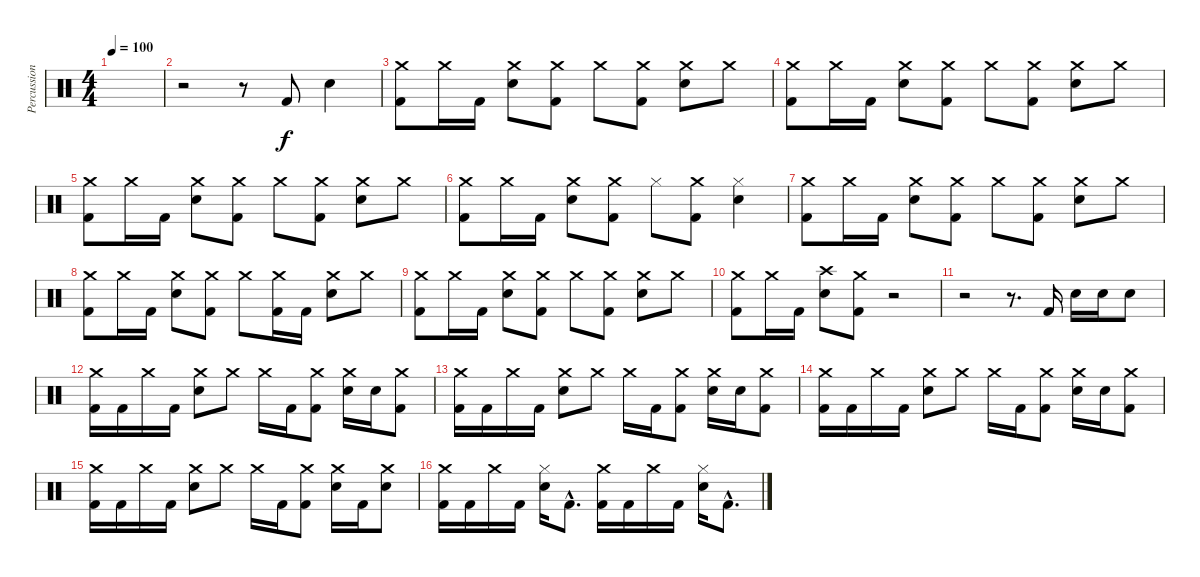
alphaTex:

\track ("Percussions" "Percussion") {instrument percussion}
\staff {score}
\articulation defaults
\ts (4 4)
\tempo 100
\clef neutral
\ks c
|
r.2 r.8 "Kick (hit) 2".8 "Electric Snare (hit)".4 |
("Crash medium (hit)" "Kick (hit) 2").8 "Crash medium (hit)".16 "Kick (hit) 2".16 ("Electric Snare (hit)" "Crash medium (hit)").8 ("Crash medium (hit)" "Kick (hit) 2").8 "Crash medium (hit)".8 ("Crash medium (hit)" "Kick (hit) 2").8 ("Electric Snare (hit)" "Crash medium (hit)").8 "Crash medium (hit)".8 |
("Crash medium (hit)" "Kick (hit) 2").8 "Crash medium (hit)".16 "Kick (hit) 2".16 ("Electric Snare (hit)" "Crash medium (hit)").8 ("Crash medium (hit)" "Kick (hit) 2").8 "Crash medium (hit)".8 ("Crash medium (hit)" "Kick (hit) 2").8 ("Electric Snare (hit)" "Crash medium (hit)").8 "Crash medium (hit)".8 |
("Crash medium (hit)" "Kick (hit) 2").8 "Crash medium (hit)".16 "Kick (hit) 2".16 ("Electric Snare (hit)" "Crash medium (hit)").8 ("Crash medium (hit)" "Kick (hit) 2").8 "Crash medium (hit)".8 ("Crash medium (hit)" "Kick (hit) 2").8 ("Electric Snare (hit)" "Crash medium (hit)").8 "Crash medium (hit)".8 |
("Crash medium (hit)" "Kick (hit) 2").8 "Crash medium (hit)".16 "Kick (hit) 2".16 ("Electric Snare (hit)" "Crash medium (hit)").8 ("Crash medium (hit)" "Kick (hit) 2").8 "Hi-Hat (closed)".8 ("Crash medium (hit)" "Kick (hit) 2").8 ("Electric Snare (hit)" "Hi-Hat (closed)").4 |
("Crash medium (hit)" "Kick (hit) 2").8 "Crash medium (hit)".16 "Kick (hit) 2".16 ("Electric Snare (hit)" "Crash medium (hit)").8 ("Crash medium (hit)" "Kick (hit) 2").8 "Crash medium (hit)".8 ("Crash medium (hit)" "Kick (hit) 2").8 ("Electric Snare (hit)" "Crash medium (hit)").8 "Crash medium (hit)".8 |
("Crash medium (hit)" "Kick (hit) 2").8 "Crash medium (hit)".16 "Kick (hit) 2".16 ("Electric Snare (hit)" "Crash medium (hit)").8 ("Crash medium (hit)" "Kick (hit) 2").8 "Crash medium (hit)".8 ("Crash medium (hit)" "Kick (hit) 2").16 "Kick (hit) 2".16 ("Electric Snare (hit)" "Crash medium (hit)").8 "Crash medium (hit)".8 |
("Crash medium (hit)" "Kick (hit) 2").8 "Crash medium (hit)".16 "Kick (hit) 2".16 ("Electric Snare (hit)" "Crash medium (hit)").8 ("Crash medium (hit)" "Kick (hit) 2").8 "Crash medium (hit)".8 ("Crash medium (hit)" "Kick (hit) 2").8 ("Electric Snare (hit)" "Crash medium (hit)").8 "Crash medium (hit)".8 |
("Crash medium (hit)" "Kick (hit) 2").8 "Crash medium (hit)".16 "Kick (hit) 2".16 ("Electric Snare (hit)" "Crash high (hit)").8 ("Crash medium (hit)" "Kick (hit) 2").8 r.2 |
r.2 r.8{d} "Kick (hit) 2".16 "Electric Snare (hit)".16 "Electric Snare (hit)".16 "Electric Snare (hit)".8 |
("Crash medium (hit)" "Kick (hit) 2").16 "Kick (hit) 2".16 "Crash medium (hit)".16 "Kick (hit) 2".16 ("Electric Snare (hit)" "Crash medium (hit)").8 "Crash medium (hit)".8 "Crash medium (hit)".16 "Kick (hit) 2".16 ("Crash medium (hit)" "Kick (hit) 2").8 ("Electric Snare (hit)" "Crash medium (hit)").16 "Electric Snare (hit)".16 ("Crash medium (hit)" "Kick (hit) 2").8 |
("Crash medium (hit)" "Kick (hit) 2").16 "Kick (hit) 2".16 "Crash medium (hit)".16 "Kick (hit) 2".16 ("Electric Snare (hit)" "Crash medium (hit)").8 "Crash medium (hit)".8 "Crash medium (hit)".16 "Kick (hit) 2".16 ("Crash medium (hit)" "Kick (hit) 2").8 ("Electric Snare (hit)" "Crash medium (hit)").16 "Electric Snare (hit)".16 ("Crash medium (hit)" "Kick (hit) 2").8 |
("Crash medium (hit)" "Kick (hit) 2").16 "Kick (hit) 2".16 "Crash medium (hit)".16 "Kick (hit) 2".16 ("Electric Snare (hit)" "Crash medium (hit)").8 "Crash medium (hit)".8 "Crash medium (hit)".16 "Kick (hit) 2".16 ("Crash medium (hit)" "Kick (hit) 2").8 ("Electric Snare (hit)" "Crash medium (hit)").16 "Electric Snare (hit)".16 ("Crash medium (hit)" "Kick (hit) 2").8 |
("Crash medium (hit)" "Kick (hit) 2").16 "Kick (hit) 2".16 "Crash medium (hit)".16 "Kick (hit) 2".16 ("Electric Snare (hit)" "Crash medium (hit)").8 "Crash medium (hit)".8 "Crash medium (hit)".16 "Kick (hit) 2".16 ("Crash medium (hit)" "Kick (hit) 2").8 ("Electric Snare (hit)" "Crash medium (hit)").16 "Kick (hit) 2".16 ("Electric Snare (hit)" "Crash medium (hit)").8 |
("Crash medium (hit)" "Kick (hit) 2").16 "Kick (hit) 2".16 "Crash medium (hit)".16 "Kick (hit) 2".16 ("Electric Snare (hit)" "Hi-Hat (closed)").16 "Kick (hit) 2"{hac}.8{d} ("Crash medium (hit)" "Kick (hit) 2").16 "Kick (hit) 2".16 "Crash medium (hit)".16 "Kick (hit) 2".16 ("Electric Snare (hit)" "Hi-Hat (closed)").16 "Kick (hit) 2"{hac}.8{d}
